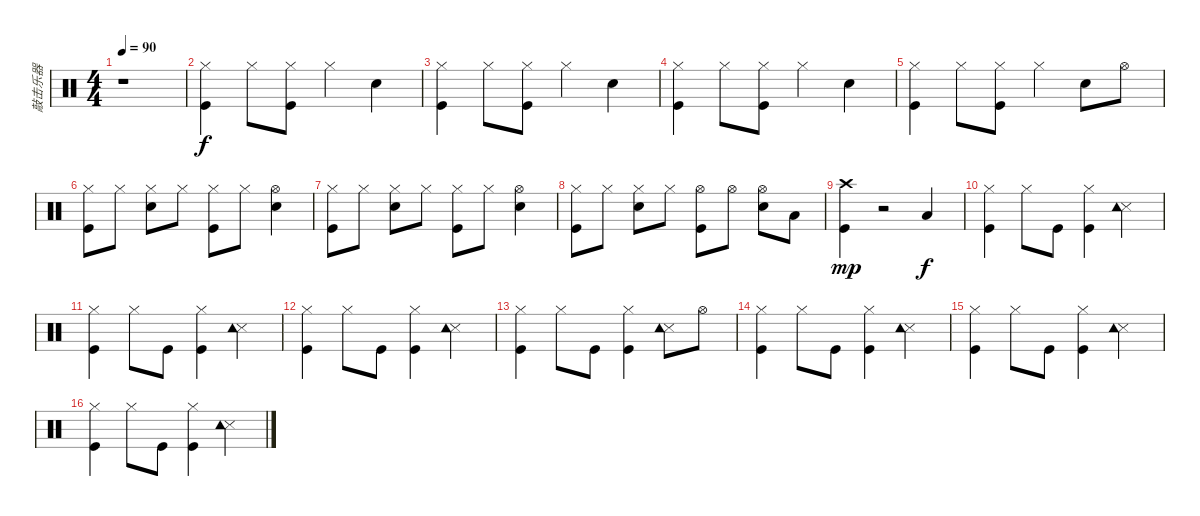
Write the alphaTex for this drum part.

\track ("敲击乐器" "敲击乐器") {instrument percussion}
\staff {score}
\articulation defaults
\ts (4 4)
\tempo 90
\clef neutral
\ks c
r.1{dy f} |
("Hi-Hat (closed)" "Kick (hit)").4 "Hi-Hat (closed)".8 ("Hi-Hat (closed)" "Kick (hit)").8 "Hi-Hat (closed)".4 "Snare (hit) 2".4 |
("Hi-Hat (closed)" "Kick (hit)").4 "Hi-Hat (closed)".8 ("Hi-Hat (closed)" "Kick (hit)").8 "Hi-Hat (closed)".4 "Snare (hit) 2".4 |
("Hi-Hat (closed)" "Kick (hit)").4 "Hi-Hat (closed)".8 ("Hi-Hat (closed)" "Kick (hit)").8 "Hi-Hat (closed)".4 "Snare (hit) 2".4 |
("Hi-Hat (closed)" "Kick (hit)").4 "Hi-Hat (closed)".8 ("Hi-Hat (closed)" "Kick (hit)").8 "Hi-Hat (closed)".4 "Snare (hit) 2".8 "Hi-Hat (open)".8 |
("Hi-Hat (closed)" "Kick (hit)").8 "Hi-Hat (closed)".8 ("Hi-Hat (closed)" "Snare (hit) 2").8 "Hi-Hat (closed)".8 ("Hi-Hat (closed)" "Kick (hit)").8 "Hi-Hat (closed)".8 ("Hi-Hat (open)" "Snare (hit) 2").4 |
("Hi-Hat (closed)" "Kick (hit)").8 "Hi-Hat (closed)".8 ("Hi-Hat (closed)" "Snare (hit) 2").8 "Hi-Hat (closed)".8 ("Hi-Hat (closed)" "Kick (hit)").8 "Hi-Hat (closed)".8 ("Hi-Hat (open)" "Snare (hit) 2").4 |
("Hi-Hat (closed)" "Kick (hit)").8 "Hi-Hat (closed)".8 ("Hi-Hat (closed)" "Snare (hit) 2").8 "Hi-Hat (closed)".8 ("Hi-Hat (open)" "Kick (hit)").8 "Hi-Hat (open)".8 ("Hi-Hat (open)" "Snare (hit) 2").8 "Low Tom (hit)".8 |
("Crash high (hit)" "Kick (hit)").4{dy mp} r.2 "Low Tom (hit)".4{dy f} |
("Hi-Hat (closed)" "Kick (hit)").4 "Hi-Hat (closed)".8 "Kick (hit)".8 ("Hi-Hat (closed)" "Kick (hit)").4 ("Snare (side stick) 3" "Tambourine (hit)").4 |
("Hi-Hat (closed)" "Kick (hit)").4 "Hi-Hat (closed)".8 "Kick (hit)".8 ("Hi-Hat (closed)" "Kick (hit)").4 ("Snare (side stick) 3" "Tambourine (hit)").4 |
("Hi-Hat (closed)" "Kick (hit)").4 "Hi-Hat (closed)".8 "Kick (hit)".8 ("Hi-Hat (closed)" "Kick (hit)").4 ("Snare (side stick) 3" "Tambourine (hit)").4 |
("Hi-Hat (closed)" "Kick (hit)").4 "Hi-Hat (closed)".8 "Kick (hit)".8 ("Hi-Hat (closed)" "Kick (hit)").4 ("Snare (side stick) 3" "Tambourine (hit)").8 "Hi-Hat (open)".8 |
("Hi-Hat (closed)" "Kick (hit)").4 "Hi-Hat (closed)".8 "Kick (hit)".8 ("Hi-Hat (closed)" "Kick (hit)").4 ("Snare (side stick) 3" "Tambourine (hit)").4 |
("Hi-Hat (closed)" "Kick (hit)").4 "Hi-Hat (closed)".8 "Kick (hit)".8 ("Hi-Hat (closed)" "Kick (hit)").4 ("Snare (side stick) 3" "Tambourine (hit)").4 |
("Hi-Hat (closed)" "Kick (hit)").4 "Hi-Hat (closed)".8 "Kick (hit)".8 ("Hi-Hat (closed)" "Kick (hit)").4 ("Snare (side stick) 3" "Tambourine (hit)").4
